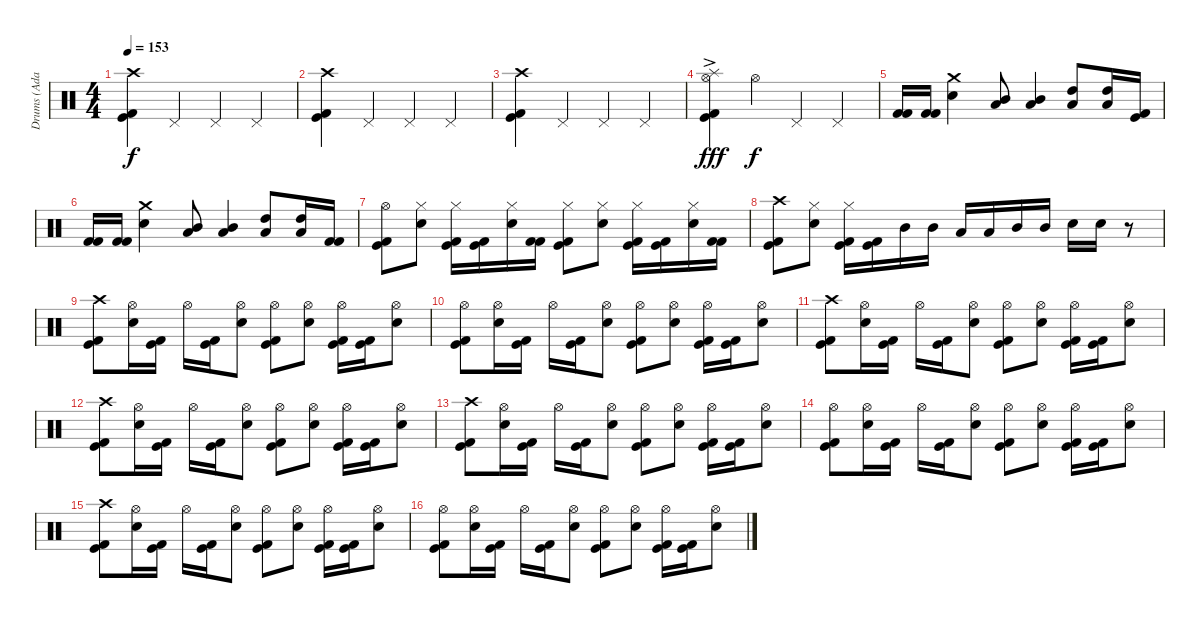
\track ("Drums (Adam)" "Drums (Ada") {instrument percussion}
\staff {score}
\articulation defaults
\ts (4 4)
\tempo 153
\clef neutral
\ks c
("Crash high (hit)" "Kick (hit)" "Kick (hit) 2").4{dy f} "Pedal Hi-Hat (hit)".4 "Pedal Hi-Hat (hit)".4 "Pedal Hi-Hat (hit)".4 |
("Crash high (hit)" "Kick (hit)" "Kick (hit) 2").4 "Pedal Hi-Hat (hit)".4 "Pedal Hi-Hat (hit)".4 "Pedal Hi-Hat (hit)".4 |
("Crash high (hit)" "Kick (hit)" "Kick (hit) 2").4 "Pedal Hi-Hat (hit)".4 "Pedal Hi-Hat (hit)".4 "Pedal Hi-Hat (hit)".4 |
("Splash (hit)"{ac} "Hi-Hat (open)"{ac} "Kick (hit)" "Kick (hit) 2").4{dy fff} "Hi-Hat (open)".4{dy f} "Pedal Hi-Hat (hit)".4 "Pedal Hi-Hat (hit)".4 |
("Kick (hit) 2" "Kick (hit) 2").16 ("Kick (hit) 2" "Kick (hit) 2").16 ("Crash medium (hit)" "Snare (hit) 2").4 ("Low Tom (hit)" "Mid Tom (hit)").8 ("Low Tom (hit)" "Mid Tom (hit)").4 ("Low Tom (hit)" "High Tom (hit)").8 ("Low Tom (hit)" "High Tom (hit)").16 ("Kick (hit)" "Kick (hit) 2").16 |
("Kick (hit) 2" "Kick (hit) 2").16 ("Kick (hit) 2" "Kick (hit) 2").16 ("Crash medium (hit)" "Snare (hit) 2").4 ("Low Tom (hit)" "Mid Tom (hit)").8 ("Low Tom (hit)" "Mid Tom (hit)").4 ("Low Tom (hit)" "High Tom (hit)").8 ("Low Tom (hit)" "High Tom (hit)").16 ("Kick (hit) 2" "Kick (hit) 2").16 |
("Hi-Hat (open)" "Kick (hit)" "Kick (hit) 2").8 ("Hi-Hat (closed)" "Snare (hit) 2").8 ("Hi-Hat (closed)" "Kick (hit)" "Kick (hit) 2").16 ("Kick (hit)" "Kick (hit) 2").16 ("Hi-Hat (closed)" "Snare (hit) 2").16 ("Kick (hit) 2" "Kick (hit) 2").16 ("Hi-Hat (closed)" "Kick (hit)" "Kick (hit) 2").8 ("Hi-Hat (closed)" "Snare (hit) 2").8 ("Hi-Hat (closed)" "Kick (hit)" "Kick (hit) 2").16 ("Kick (hit)" "Kick (hit) 2").16 ("Hi-Hat (closed)" "Snare (hit) 2").16 ("Kick (hit) 2" "Kick (hit) 2").16 |
("Crash high (hit)" "Kick (hit)" "Kick (hit) 2").8 ("Hi-Hat (closed)" "Snare (hit) 2").8 ("Hi-Hat (closed)" "Kick (hit)" "Kick (hit) 2").16 ("Kick (hit)" "Kick (hit) 2").16 "Mid Tom (hit)".16 "Mid Tom (hit)".16 "Low Tom (hit)".16 "Low Tom (hit)".16 "Mid Tom (hit)".16 "Mid Tom (hit)".16 "Snare (hit) 2".16 "Snare (hit) 2".16 r.8 |
("Crash high (hit)" "Kick (hit)" "Kick (hit) 2").8 ("Hi-Hat (open)" "Snare (hit) 2").16 ("Kick (hit)" "Kick (hit) 2").16 "Hi-Hat (open)".16 ("Kick (hit)" "Kick (hit) 2").16 ("Hi-Hat (open)" "Snare (hit) 2").8 ("Hi-Hat (open)" "Kick (hit)" "Kick (hit) 2").8 ("Hi-Hat (open)" "Snare (hit) 2").8 ("Hi-Hat (open)" "Kick (hit)" "Kick (hit) 2").16 ("Kick (hit)" "Kick (hit) 2").16 ("Hi-Hat (open)" "Snare (hit) 2").8 |
("Hi-Hat (open)" "Kick (hit)" "Kick (hit) 2").8 ("Hi-Hat (open)" "Snare (hit) 2").16 ("Kick (hit)" "Kick (hit) 2").16 "Hi-Hat (open)".16 ("Kick (hit)" "Kick (hit) 2").16 ("Hi-Hat (open)" "Snare (hit) 2").8 ("Hi-Hat (open)" "Kick (hit)" "Kick (hit) 2").8 ("Hi-Hat (open)" "Snare (hit) 2").8 ("Hi-Hat (open)" "Kick (hit)" "Kick (hit) 2").16 ("Kick (hit)" "Kick (hit) 2").16 ("Hi-Hat (open)" "Snare (hit) 2").8 |
("Crash high (hit)" "Kick (hit)" "Kick (hit) 2").8 ("Hi-Hat (open)" "Snare (hit) 2").16 ("Kick (hit)" "Kick (hit) 2").16 "Hi-Hat (open)".16 ("Kick (hit)" "Kick (hit) 2").16 ("Hi-Hat (open)" "Snare (hit) 2").8 ("Hi-Hat (open)" "Kick (hit)" "Kick (hit) 2").8 ("Hi-Hat (open)" "Snare (hit) 2").8 ("Hi-Hat (open)" "Kick (hit)" "Kick (hit) 2").16 ("Kick (hit)" "Kick (hit) 2").16 ("Hi-Hat (open)" "Snare (hit) 2").8 |
("Crash high (hit)" "Kick (hit)" "Kick (hit) 2").8 ("Hi-Hat (open)" "Snare (hit) 2").16 ("Kick (hit)" "Kick (hit) 2").16 "Hi-Hat (open)".16 ("Kick (hit)" "Kick (hit) 2").16 ("Hi-Hat (open)" "Snare (hit) 2").8 ("Hi-Hat (open)" "Kick (hit)" "Kick (hit) 2").8 ("Hi-Hat (open)" "Snare (hit) 2").8 ("Hi-Hat (open)" "Kick (hit)" "Kick (hit) 2").16 ("Kick (hit)" "Kick (hit) 2").16 ("Hi-Hat (open)" "Snare (hit) 2").8 |
("Crash high (hit)" "Kick (hit)" "Kick (hit) 2").8 ("Hi-Hat (open)" "Snare (hit) 2").16 ("Kick (hit)" "Kick (hit) 2").16 "Hi-Hat (open)".16 ("Kick (hit)" "Kick (hit) 2").16 ("Hi-Hat (open)" "Snare (hit) 2").8 ("Hi-Hat (open)" "Kick (hit)" "Kick (hit) 2").8 ("Hi-Hat (open)" "Snare (hit) 2").8 ("Hi-Hat (open)" "Kick (hit)" "Kick (hit) 2").16 ("Kick (hit)" "Kick (hit) 2").16 ("Hi-Hat (open)" "Snare (hit) 2").8 |
("Hi-Hat (open)" "Kick (hit)" "Kick (hit) 2").8 ("Hi-Hat (open)" "Snare (hit) 2").16 ("Kick (hit)" "Kick (hit) 2").16 "Hi-Hat (open)".16 ("Kick (hit)" "Kick (hit) 2").16 ("Hi-Hat (open)" "Snare (hit) 2").8 ("Hi-Hat (open)" "Kick (hit)" "Kick (hit) 2").8 ("Hi-Hat (open)" "Snare (hit) 2").8 ("Hi-Hat (open)" "Kick (hit)" "Kick (hit) 2").16 ("Kick (hit)" "Kick (hit) 2").16 ("Hi-Hat (open)" "Snare (hit) 2").8 |
("Crash high (hit)" "Kick (hit)" "Kick (hit) 2").8 ("Hi-Hat (open)" "Snare (hit) 2").16 ("Kick (hit)" "Kick (hit) 2").16 "Hi-Hat (open)".16 ("Kick (hit)" "Kick (hit) 2").16 ("Hi-Hat (open)" "Snare (hit) 2").8 ("Hi-Hat (open)" "Kick (hit)" "Kick (hit) 2").8 ("Hi-Hat (open)" "Snare (hit) 2").8 ("Hi-Hat (open)" "Kick (hit)" "Kick (hit) 2").16 ("Kick (hit)" "Kick (hit) 2").16 ("Hi-Hat (open)" "Snare (hit) 2").8 |
("Hi-Hat (open)" "Kick (hit)" "Kick (hit) 2").8 ("Hi-Hat (open)" "Snare (hit) 2").16 ("Kick (hit)" "Kick (hit) 2").16 "Hi-Hat (open)".16 ("Kick (hit)" "Kick (hit) 2").16 ("Hi-Hat (open)" "Snare (hit) 2").8 ("Hi-Hat (open)" "Kick (hit)" "Kick (hit) 2").8 ("Hi-Hat (open)" "Snare (hit) 2").8 ("Hi-Hat (open)" "Kick (hit)" "Kick (hit) 2").16 ("Kick (hit)" "Kick (hit) 2").16 ("Hi-Hat (open)" "Snare (hit) 2").8
